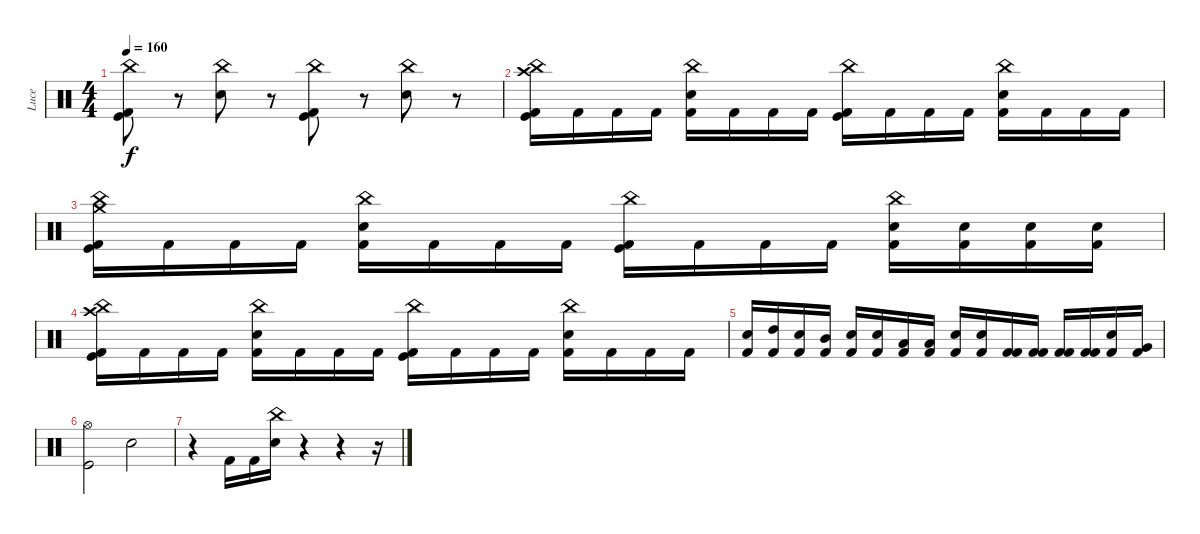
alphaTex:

\track ("Luce" "Luce") {instrument percussion}
\staff {score}
\articulation defaults
\ts (4 4)
\tempo 160
\clef neutral
\ks c
("China (hit)" "Kick (hit) 2" "Kick (hit)").8{dy f} r.8 ("China (hit)" "Snare (hit) 2").8 r.8 ("China (hit)" "Kick (hit) 2" "Kick (hit)").8 r.8 ("China (hit)" "Snare (hit) 2").8 r.8 |
("China (hit)" "Crash high (hit)" "Kick (hit)" "Kick (hit) 2").16 "Kick (hit) 2".16 "Kick (hit) 2".16 "Kick (hit) 2".16 ("China (hit)" "Snare (hit) 2" "Kick (hit) 2").16 "Kick (hit) 2".16 "Kick (hit) 2".16 "Kick (hit) 2".16 ("China (hit)" "Kick (hit)" "Kick (hit) 2").16 "Kick (hit) 2".16 "Kick (hit) 2".16 "Kick (hit) 2".16 ("China (hit)" "Snare (hit) 2" "Kick (hit) 2").16 "Kick (hit) 2".16 "Kick (hit) 2".16 "Kick (hit) 2".16 |
("China (hit)" "Crash medium (hit)" "Kick (hit)" "Kick (hit) 2").16 "Kick (hit) 2".16 "Kick (hit) 2".16 "Kick (hit) 2".16 ("China (hit)" "Snare (hit) 2" "Kick (hit) 2").16 "Kick (hit) 2".16 "Kick (hit) 2".16 "Kick (hit) 2".16 ("China (hit)" "Kick (hit)" "Kick (hit) 2").16 "Kick (hit) 2".16 "Kick (hit) 2".16 "Kick (hit) 2".16 ("China (hit)" "Snare (hit) 2" "Kick (hit) 2").16 ("Snare (hit) 2" "Kick (hit) 2").16 ("Snare (hit) 2" "Kick (hit) 2").16 ("Snare (hit) 2" "Kick (hit) 2").16 |
("China (hit)" "Crash high (hit)" "Kick (hit)" "Kick (hit) 2").16 "Kick (hit) 2".16 "Kick (hit) 2".16 "Kick (hit) 2".16 ("China (hit)" "Snare (hit) 2" "Kick (hit) 2").16 "Kick (hit) 2".16 "Kick (hit) 2".16 "Kick (hit) 2".16 ("China (hit)" "Kick (hit)" "Kick (hit) 2").16 "Kick (hit) 2".16 "Kick (hit) 2".16 "Kick (hit) 2".16 ("China (hit)" "Snare (hit) 2" "Kick (hit) 2").16 "Kick (hit) 2".16 "Kick (hit) 2".16 "Kick (hit) 2".16 |
("Electric Snare (hit)" "Kick (hit) 2").16 ("High Tom (hit)" "Kick (hit) 2").16 ("Electric Snare (hit)" "Kick (hit) 2").16 ("Mid Tom (hit)" "Kick (hit) 2").16 ("Electric Snare (hit)" "Kick (hit) 2").16 ("Electric Snare (hit)" "Kick (hit) 2").16 ("Low Tom (hit)" "Kick (hit) 2").16 ("Low Tom (hit)" "Kick (hit) 2").16 ("Electric Snare (hit)" "Kick (hit) 2").16 ("Electric Snare (hit)" "Kick (hit) 2").16 ("Kick (hit) 2" "Kick (hit) 2").16 ("Kick (hit) 2" "Kick (hit) 2").16 ("Kick (hit) 2" "Kick (hit) 2").16 ("Kick (hit) 2" "Kick (hit) 2").16 ("Electric Snare (hit)" "Kick (hit) 2").16 ("Very Low Tom (hit)" "Kick (hit) 2").16 |
("Hi-Hat (open)" "Kick (hit)").2 "Snare (hit) 2".2 |
r.4 "Kick (hit) 2".16 "Kick (hit) 2".16 ("China (hit)" "Electric Snare (hit)").16 r.4 r.4 r.16
